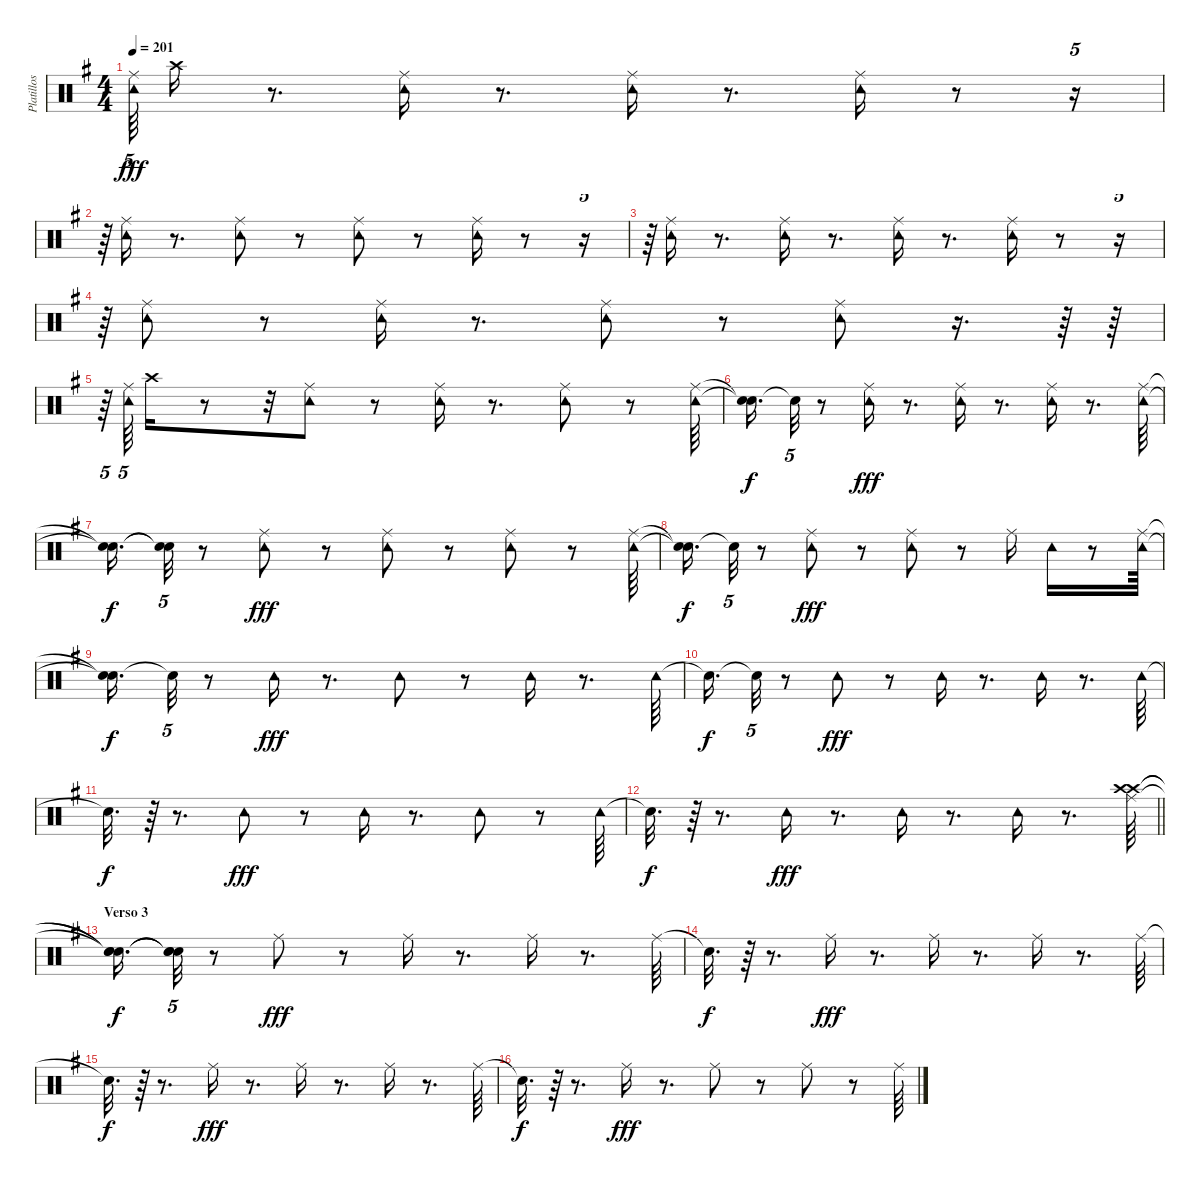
\track ("Platillos y pandero" "Platillos ") {instrument percussion}
\staff {score}
\articulation defaults
\ts (4 4)
\tempo 201
\clef neutral
\ks g
("Tambourine (hit)" "Ride (middle)").64{tu (5 4) dy fff} "Crash high (hit)".16 r.8{d} ("Tambourine (hit)" "Ride (middle)").16 r.8{d} ("Ride (middle)" "Tambourine (hit)").16 r.8{d} ("Tambourine (hit)" "Ride (middle)").16 r.8 r.16{tu (5 4)} |
r.64{tu (5 4)} ("Ride (middle)" "Tambourine (hit)").16 r.8{d} ("Ride (middle)" "Tambourine (hit)").8 r.8 ("Ride (middle)" "Tambourine (hit)").8 r.8 ("Ride (middle)" "Tambourine (hit)").16 r.8 r.16{tu (5 4)} |
r.64{tu (5 4)} ("Ride (middle)" "Tambourine (hit)").16 r.8{d} ("Tambourine (hit)" "Ride (middle)").16 r.8{d} ("Tambourine (hit)" "Ride (middle)").16 r.8{d} ("Ride (middle)" "Tambourine (hit)").16 r.8 r.16{tu (5 4)} |
r.64{tu (5 4)} ("Ride (middle)" "Tambourine (hit)").8 r.8 ("Ride (middle)" "Tambourine (hit)").16 r.8{d} ("Ride (middle)" "Tambourine (hit)").8 r.8 ("Tambourine (hit)" "Ride (middle)").8 r.16{d} r.64 r.64 |
r.64{tu (5 4)} ("Tambourine (hit)" "Ride (middle)").64{tu (5 4)} "Crash high (hit)".16 r.8 r.32 ("Tambourine (hit)" "Ride (middle)").8 r.8 ("Tambourine (hit)" "Ride (middle)").16 r.8{d} ("Ride (middle)" "Tambourine (hit)").8 r.8 ("Ride (middle)" "Tambourine (hit)").64 |
("Snare (hit)"{t} "Snare (hit)"{t}).16{d dy f} "Snare (hit)"{t}.32{tu (5 4)} r.8 ("Ride (middle)" "Tambourine (hit)").16{dy fff} r.8{d} ("Ride (middle)" "Tambourine (hit)").16 r.8{d} ("Ride (middle)" "Tambourine (hit)").16 r.8{d} ("Tambourine (hit)" "Ride (middle)").64 |
("Snare (hit)"{t} "Snare (hit)"{t}).16{d dy f} ("Snare (hit)"{t} "Snare (hit)"{t}).32{tu (5 4)} r.8 ("Ride (middle)" "Tambourine (hit)").8{dy fff} r.8 ("Ride (middle)" "Tambourine (hit)").8 r.8 ("Tambourine (hit)" "Ride (middle)").8 r.8 ("Tambourine (hit)" "Ride (middle)").64 |
("Snare (hit)"{t} "Snare (hit)"{t}).16{d dy f} "Snare (hit)"{t}.32{tu (5 4)} r.8 ("Tambourine (hit)" "Ride (middle)").8{dy fff} r.8 ("Ride (middle)" "Tambourine (hit)").8 r.8 "Ride (middle)".16 "Tambourine (hit)".16 r.8 ("Ride (middle)" "Tambourine (hit)").64 |
("Snare (hit)"{t} "Snare (hit)"{t}).16{d dy f} "Snare (hit)"{t}.32{tu (5 4)} r.8 "Tambourine (hit)".16{dy fff} r.8{d} "Tambourine (hit)".8 r.8 "Tambourine (hit)".16 r.8{d} "Tambourine (hit)".64 |
"Snare (hit)"{t}.16{d dy f} "Snare (hit)"{t}.32{tu (5 4)} r.8 "Tambourine (hit)".8{dy fff} r.8 "Tambourine (hit)".16 r.8{d} "Tambourine (hit)".16 r.8{d} "Tambourine (hit)".64 |
"Snare (hit)"{t}.32{d dy f} r.64 r.8{d} "Tambourine (hit)".8{dy fff} r.8 "Tambourine (hit)".16 r.8{d} "Tambourine (hit)".8 r.8 "Tambourine (hit)".64 |
\barLineRight lightlight "Snare (hit)"{t}.32{d dy f}
r.64 r.8{d} "Tambourine (hit)".16{dy fff} r.8{d} "Tambourine (hit)".16 r.8{d} "Tambourine (hit)".16 r.8{d} ("Crash high (hit)" "Ride (middle)" "Crash high (hit)").64 |
\section ("" "Verso 3")
("Snare (hit)"{t} "Snare (hit)"{t} "Snare (hit)"{t}).16{d dy f} ("Snare (hit)"{t} "Snare (hit)"{t} "Snare (hit)"{t}).32{tu (5 4)} r.8 "Ride (middle)".8{dy fff} r.8 "Ride (middle)".16 r.8{d} "Ride (middle)".16 r.8{d} "Ride (middle)".64 |
"Snare (hit)"{t}.32{d dy f} r.64 r.8{d} "Ride (middle)".16{dy fff} r.8{d} "Ride (middle)".16 r.8{d} "Ride (middle)".16 r.8{d} "Ride (middle)".64 |
"Snare (hit)"{t}.32{d dy f} r.64 r.8{d} "Ride (middle)".16{dy fff} r.8{d} "Ride (middle)".16 r.8{d} "Ride (middle)".16 r.8{d} "Ride (middle)".64 |
"Snare (hit)"{t}.32{d dy f} r.64 r.8{d} "Ride (middle)".16{dy fff} r.8{d} "Ride (middle)".8 r.8 "Ride (middle)".8 r.8 "Ride (middle)".64
